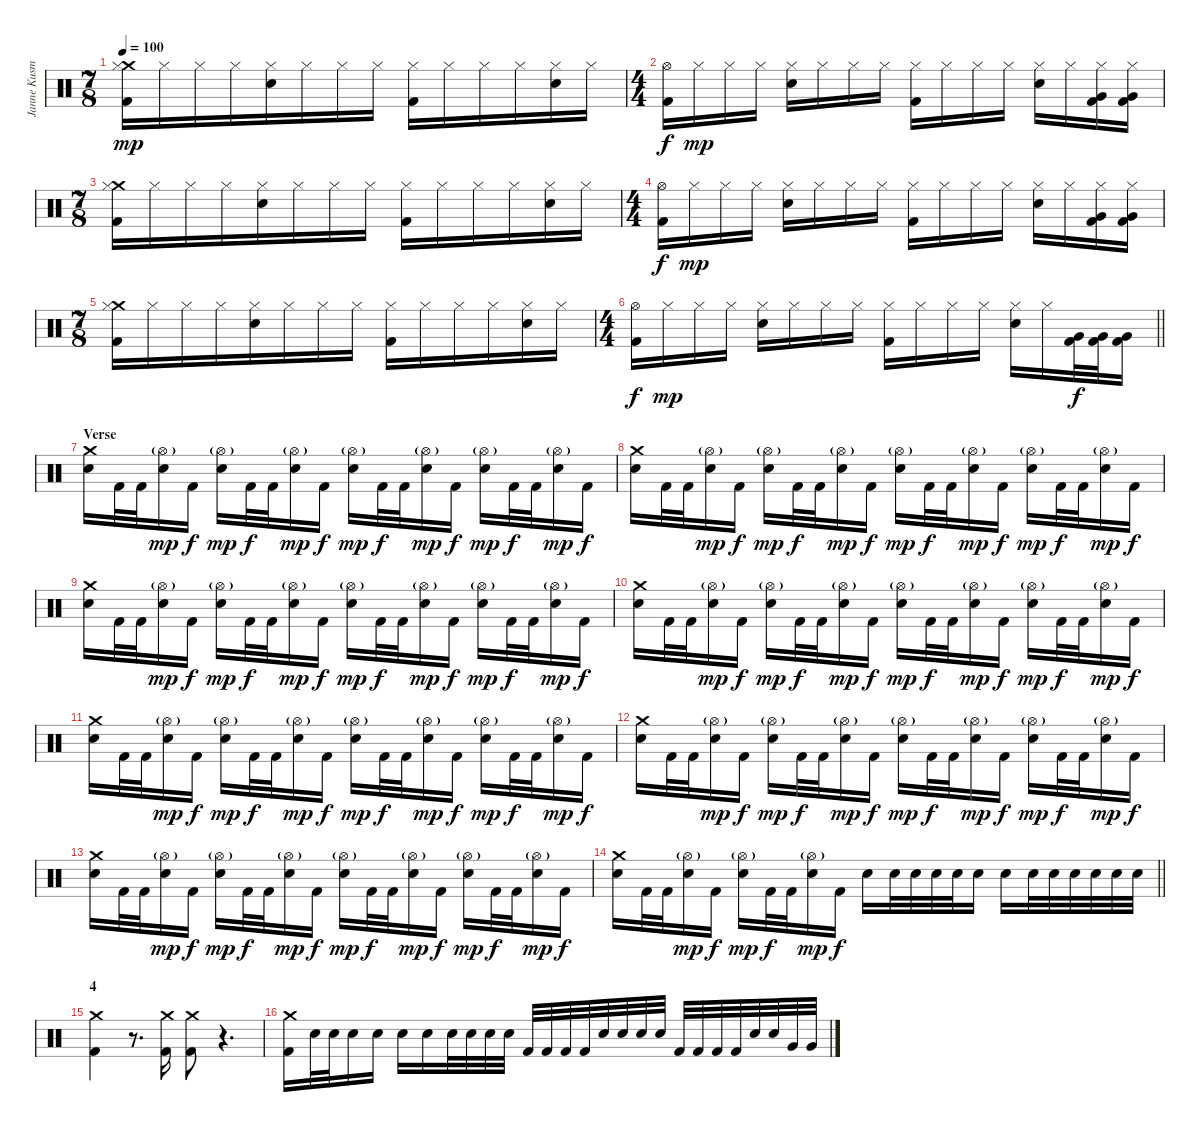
\track ("Janne Kusmin " "Janne Kusm") {instrument percussion}
\staff {score}
\articulation defaults
\ts (7 8)
\tempo 100
\clef neutral
\ks c
("Crash medium (hit)" "Hi-Hat (closed)" "Kick (hit) 2").16{dy mp} "Hi-Hat (closed)".16 "Hi-Hat (closed)".16 "Hi-Hat (closed)".16 ("Hi-Hat (closed)" "Electric Snare (hit)").16 "Hi-Hat (closed)".16 "Hi-Hat (closed)".16 "Hi-Hat (closed)".16 ("Hi-Hat (closed)" "Kick (hit) 2").16 "Hi-Hat (closed)".16 "Hi-Hat (closed)".16 "Hi-Hat (closed)".16 ("Hi-Hat (closed)" "Electric Snare (hit)").16 "Hi-Hat (closed)".16 |
\ts (4 4)
("Hi-Hat (open)" "Kick (hit) 2").16{dy f} "Hi-Hat (closed)".16{dy mp} "Hi-Hat (closed)".16 "Hi-Hat (closed)".16 ("Hi-Hat (closed)" "Electric Snare (hit)").16 "Hi-Hat (closed)".16 "Hi-Hat (closed)".16 "Hi-Hat (closed)".16 ("Hi-Hat (closed)" "Kick (hit) 2").16 "Hi-Hat (closed)".16 "Hi-Hat (closed)".16 "Hi-Hat (closed)".16 ("Hi-Hat (closed)" "Electric Snare (hit)").16 "Hi-Hat (closed)".16 ("Hi-Hat (closed)" "Very Low Tom (hit)" "Kick (hit) 2").16 ("Hi-Hat (closed)" "Very Low Tom (hit)" "Kick (hit) 2").16 |
\ts (7 8)
("Crash medium (hit)" "Hi-Hat (closed)" "Kick (hit) 2").16 "Hi-Hat (closed)".16 "Hi-Hat (closed)".16 "Hi-Hat (closed)".16 ("Hi-Hat (closed)" "Electric Snare (hit)").16 "Hi-Hat (closed)".16 "Hi-Hat (closed)".16 "Hi-Hat (closed)".16 ("Hi-Hat (closed)" "Kick (hit) 2").16 "Hi-Hat (closed)".16 "Hi-Hat (closed)".16 "Hi-Hat (closed)".16 ("Hi-Hat (closed)" "Electric Snare (hit)").16 "Hi-Hat (closed)".16 |
\ts (4 4)
("Hi-Hat (open)" "Kick (hit) 2").16{dy f} "Hi-Hat (closed)".16{dy mp} "Hi-Hat (closed)".16 "Hi-Hat (closed)".16 ("Hi-Hat (closed)" "Electric Snare (hit)").16 "Hi-Hat (closed)".16 "Hi-Hat (closed)".16 "Hi-Hat (closed)".16 ("Hi-Hat (closed)" "Kick (hit) 2").16 "Hi-Hat (closed)".16 "Hi-Hat (closed)".16 "Hi-Hat (closed)".16 ("Hi-Hat (closed)" "Electric Snare (hit)").16 "Hi-Hat (closed)".16 ("Hi-Hat (closed)" "Very Low Tom (hit)" "Kick (hit) 2").16 ("Hi-Hat (closed)" "Very Low Tom (hit)" "Kick (hit) 2").16 |
\ts (7 8)
("Crash medium (hit)" "Hi-Hat (closed)" "Kick (hit) 2").16 "Hi-Hat (closed)".16 "Hi-Hat (closed)".16 "Hi-Hat (closed)".16 ("Hi-Hat (closed)" "Electric Snare (hit)").16 "Hi-Hat (closed)".16 "Hi-Hat (closed)".16 "Hi-Hat (closed)".16 ("Hi-Hat (closed)" "Kick (hit) 2").16 "Hi-Hat (closed)".16 "Hi-Hat (closed)".16 "Hi-Hat (closed)".16 ("Hi-Hat (closed)" "Electric Snare (hit)").16 "Hi-Hat (closed)".16 |
\ts (4 4)
\barLineRight lightlight
("Hi-Hat (open)" "Kick (hit) 2").16{dy f} "Hi-Hat (closed)".16{dy mp} "Hi-Hat (closed)".16 "Hi-Hat (closed)".16 ("Hi-Hat (closed)" "Electric Snare (hit)").16 "Hi-Hat (closed)".16 "Hi-Hat (closed)".16 "Hi-Hat (closed)".16 ("Hi-Hat (closed)" "Kick (hit) 2").16 "Hi-Hat (closed)".16 "Hi-Hat (closed)".16 "Hi-Hat (closed)".16 ("Hi-Hat (closed)" "Electric Snare (hit)").16 "Hi-Hat (closed)".16 ("Very Low Tom (hit)" "Kick (hit) 2").32{dy f} ("Very Low Tom (hit)" "Kick (hit) 2").32 ("Very Low Tom (hit)" "Kick (hit) 2").16 |
\section ("" "Verse")
("Crash medium (hit)" "Electric Snare (hit)").16 "Kick (hit) 2".32 "Kick (hit) 2".32 ("Hi-Hat (open)"{g} "Electric Snare (hit)").16{dy mp} "Kick (hit) 2".16{dy f} ("Hi-Hat (open)"{g} "Electric Snare (hit)").16{dy mp} "Kick (hit) 2".32{dy f} "Kick (hit) 2".32 ("Hi-Hat (open)"{g} "Electric Snare (hit)").16{dy mp} "Kick (hit) 2".16{dy f} ("Hi-Hat (open)"{g} "Electric Snare (hit)").16{dy mp} "Kick (hit) 2".32{dy f} "Kick (hit) 2".32 ("Hi-Hat (open)"{g} "Electric Snare (hit)").16{dy mp} "Kick (hit) 2".16{dy f} ("Hi-Hat (open)"{g} "Electric Snare (hit)").16{dy mp} "Kick (hit) 2".32{dy f} "Kick (hit) 2".32 ("Hi-Hat (open)"{g} "Electric Snare (hit)").16{dy mp} "Kick (hit) 2".16{dy f} |
("Crash medium (hit)" "Electric Snare (hit)").16 "Kick (hit) 2".32 "Kick (hit) 2".32 ("Hi-Hat (open)"{g} "Electric Snare (hit)").16{dy mp} "Kick (hit) 2".16{dy f} ("Hi-Hat (open)"{g} "Electric Snare (hit)").16{dy mp} "Kick (hit) 2".32{dy f} "Kick (hit) 2".32 ("Hi-Hat (open)"{g} "Electric Snare (hit)").16{dy mp} "Kick (hit) 2".16{dy f} ("Hi-Hat (open)"{g} "Electric Snare (hit)").16{dy mp} "Kick (hit) 2".32{dy f} "Kick (hit) 2".32 ("Hi-Hat (open)"{g} "Electric Snare (hit)").16{dy mp} "Kick (hit) 2".16{dy f} ("Hi-Hat (open)"{g} "Electric Snare (hit)").16{dy mp} "Kick (hit) 2".32{dy f} "Kick (hit) 2".32 ("Hi-Hat (open)"{g} "Electric Snare (hit)").16{dy mp} "Kick (hit) 2".16{dy f} |
("Crash medium (hit)" "Electric Snare (hit)").16 "Kick (hit) 2".32 "Kick (hit) 2".32 ("Hi-Hat (open)"{g} "Electric Snare (hit)").16{dy mp} "Kick (hit) 2".16{dy f} ("Hi-Hat (open)"{g} "Electric Snare (hit)").16{dy mp} "Kick (hit) 2".32{dy f} "Kick (hit) 2".32 ("Hi-Hat (open)"{g} "Electric Snare (hit)").16{dy mp} "Kick (hit) 2".16{dy f} ("Hi-Hat (open)"{g} "Electric Snare (hit)").16{dy mp} "Kick (hit) 2".32{dy f} "Kick (hit) 2".32 ("Hi-Hat (open)"{g} "Electric Snare (hit)").16{dy mp} "Kick (hit) 2".16{dy f} ("Hi-Hat (open)"{g} "Electric Snare (hit)").16{dy mp} "Kick (hit) 2".32{dy f} "Kick (hit) 2".32 ("Hi-Hat (open)"{g} "Electric Snare (hit)").16{dy mp} "Kick (hit) 2".16{dy f} |
("Crash medium (hit)" "Electric Snare (hit)").16 "Kick (hit) 2".32 "Kick (hit) 2".32 ("Hi-Hat (open)"{g} "Electric Snare (hit)").16{dy mp} "Kick (hit) 2".16{dy f} ("Hi-Hat (open)"{g} "Electric Snare (hit)").16{dy mp} "Kick (hit) 2".32{dy f} "Kick (hit) 2".32 ("Hi-Hat (open)"{g} "Electric Snare (hit)").16{dy mp} "Kick (hit) 2".16{dy f} ("Hi-Hat (open)"{g} "Electric Snare (hit)").16{dy mp} "Kick (hit) 2".32{dy f} "Kick (hit) 2".32 ("Hi-Hat (open)"{g} "Electric Snare (hit)").16{dy mp} "Kick (hit) 2".16{dy f} ("Hi-Hat (open)"{g} "Electric Snare (hit)").16{dy mp} "Kick (hit) 2".32{dy f} "Kick (hit) 2".32 ("Hi-Hat (open)"{g} "Electric Snare (hit)").16{dy mp} "Kick (hit) 2".16{dy f} |
("Crash medium (hit)" "Electric Snare (hit)").16 "Kick (hit) 2".32 "Kick (hit) 2".32 ("Hi-Hat (open)"{g} "Electric Snare (hit)").16{dy mp} "Kick (hit) 2".16{dy f} ("Hi-Hat (open)"{g} "Electric Snare (hit)").16{dy mp} "Kick (hit) 2".32{dy f} "Kick (hit) 2".32 ("Hi-Hat (open)"{g} "Electric Snare (hit)").16{dy mp} "Kick (hit) 2".16{dy f} ("Hi-Hat (open)"{g} "Electric Snare (hit)").16{dy mp} "Kick (hit) 2".32{dy f} "Kick (hit) 2".32 ("Hi-Hat (open)"{g} "Electric Snare (hit)").16{dy mp} "Kick (hit) 2".16{dy f} ("Hi-Hat (open)"{g} "Electric Snare (hit)").16{dy mp} "Kick (hit) 2".32{dy f} "Kick (hit) 2".32 ("Hi-Hat (open)"{g} "Electric Snare (hit)").16{dy mp} "Kick (hit) 2".16{dy f} |
("Crash medium (hit)" "Electric Snare (hit)").16 "Kick (hit) 2".32 "Kick (hit) 2".32 ("Hi-Hat (open)"{g} "Electric Snare (hit)").16{dy mp} "Kick (hit) 2".16{dy f} ("Hi-Hat (open)"{g} "Electric Snare (hit)").16{dy mp} "Kick (hit) 2".32{dy f} "Kick (hit) 2".32 ("Hi-Hat (open)"{g} "Electric Snare (hit)").16{dy mp} "Kick (hit) 2".16{dy f} ("Hi-Hat (open)"{g} "Electric Snare (hit)").16{dy mp} "Kick (hit) 2".32{dy f} "Kick (hit) 2".32 ("Hi-Hat (open)"{g} "Electric Snare (hit)").16{dy mp} "Kick (hit) 2".16{dy f} ("Hi-Hat (open)"{g} "Electric Snare (hit)").16{dy mp} "Kick (hit) 2".32{dy f} "Kick (hit) 2".32 ("Hi-Hat (open)"{g} "Electric Snare (hit)").16{dy mp} "Kick (hit) 2".16{dy f} |
("Crash medium (hit)" "Electric Snare (hit)").16 "Kick (hit) 2".32 "Kick (hit) 2".32 ("Hi-Hat (open)"{g} "Electric Snare (hit)").16{dy mp} "Kick (hit) 2".16{dy f} ("Hi-Hat (open)"{g} "Electric Snare (hit)").16{dy mp} "Kick (hit) 2".32{dy f} "Kick (hit) 2".32 ("Hi-Hat (open)"{g} "Electric Snare (hit)").16{dy mp} "Kick (hit) 2".16{dy f} ("Hi-Hat (open)"{g} "Electric Snare (hit)").16{dy mp} "Kick (hit) 2".32{dy f} "Kick (hit) 2".32 ("Hi-Hat (open)"{g} "Electric Snare (hit)").16{dy mp} "Kick (hit) 2".16{dy f} ("Hi-Hat (open)"{g} "Electric Snare (hit)").16{dy mp} "Kick (hit) 2".32{dy f} "Kick (hit) 2".32 ("Hi-Hat (open)"{g} "Electric Snare (hit)").16{dy mp} "Kick (hit) 2".16{dy f} |
\barLineRight lightlight
("Crash medium (hit)" "Electric Snare (hit)").16 "Kick (hit) 2".32 "Kick (hit) 2".32 ("Hi-Hat (open)"{g} "Electric Snare (hit)").16{dy mp} "Kick (hit) 2".16{dy f} ("Hi-Hat (open)"{g} "Electric Snare (hit)").16{dy mp} "Kick (hit) 2".32{dy f} "Kick (hit) 2".32 ("Hi-Hat (open)"{g} "Electric Snare (hit)").16{dy mp} "Kick (hit) 2".16{dy f} "Electric Snare (hit)".16 "Electric Snare (hit)".32 "Electric Snare (hit)".32 "Electric Snare (hit)".32 "Electric Snare (hit)".32 "Electric Snare (hit)".16 "Electric Snare (hit)".16 "Electric Snare (hit)".32 "Electric Snare (hit)".32 "Electric Snare (hit)".32 "Electric Snare (hit)".32 "Electric Snare (hit)".32 "Electric Snare (hit)".32 |
\section ("" "4")
("Crash medium (hit)" "Kick (hit) 2").4 r.8{d} ("Crash medium (hit)" "Kick (hit) 2").16 ("Crash medium (hit)" "Kick (hit) 2").8 r.4{d} |
("Crash medium (hit)" "Kick (hit) 2").16 "Electric Snare (hit)".32 "Electric Snare (hit)".32 "Electric Snare (hit)".16 "Electric Snare (hit)".16 "Electric Snare (hit)".16 "Electric Snare (hit)".16 "Electric Snare (hit)".32 "Electric Snare (hit)".32 "Electric Snare (hit)".32 "Electric Snare (hit)".32 "Kick (hit) 2".32 "Kick (hit) 2".32 "Kick (hit) 2".32 "Kick (hit) 2".32 "Electric Snare (hit)".32 "Electric Snare (hit)".32 "Electric Snare (hit)".32 "Electric Snare (hit)".32 "Kick (hit) 2".32 "Kick (hit) 2".32 "Kick (hit) 2".32 "Kick (hit) 2".32 "Electric Snare (hit)".32 "Electric Snare (hit)".32 "Very Low Tom (hit)".32 "Very Low Tom (hit)".32
